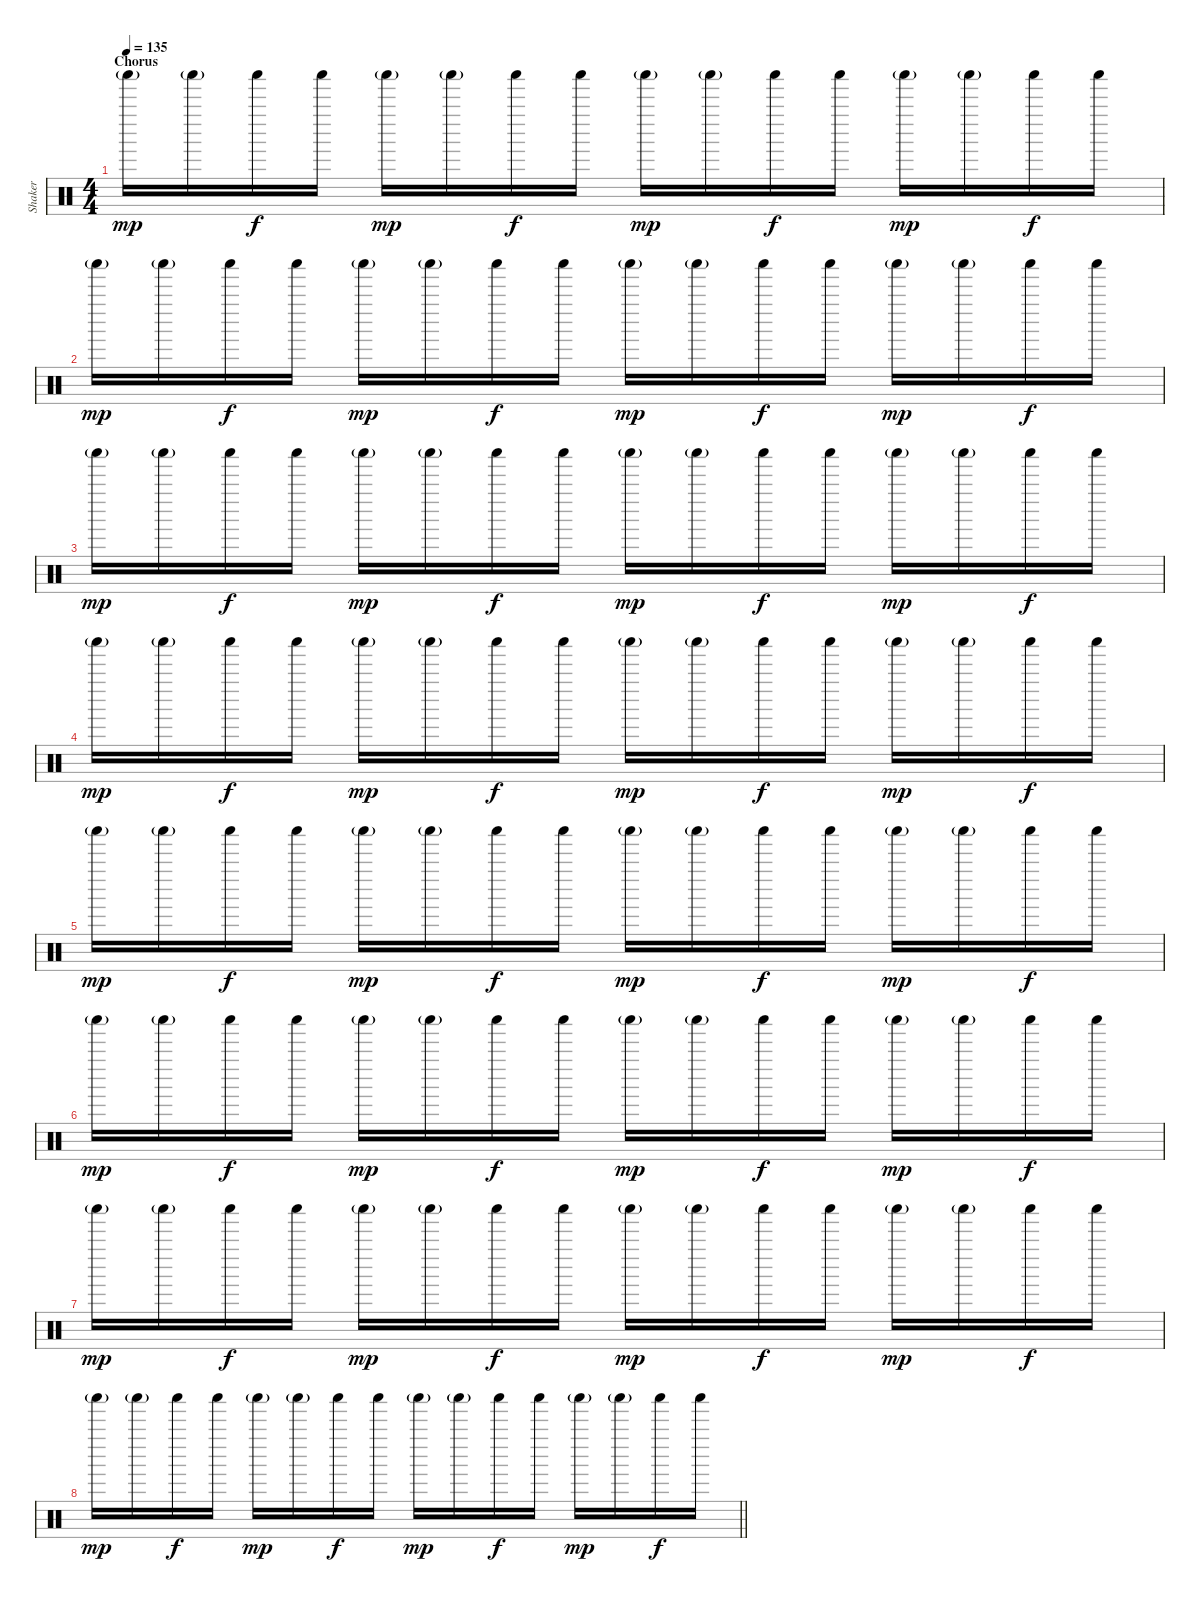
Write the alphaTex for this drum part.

\track ("Shaker" "Shaker") {instrument percussion}
\staff {score}
\articulation defaults
\ts (4 4)
\section ("" "Chorus")
\tempo 135
\clef neutral
\ks c "Shaker (hit)"{g}.16{dy mp} "Shaker (hit)"{g}.16 "Shaker (hit)".16{dy f} "Shaker (hit)".16 "Shaker (hit)"{g}.16{dy mp} "Shaker (hit)"{g}.16 "Shaker (hit)".16{dy f} "Shaker (hit)".16 "Shaker (hit)"{g}.16{dy mp} "Shaker (hit)"{g}.16 "Shaker (hit)".16{dy f} "Shaker (hit)".16 "Shaker (hit)"{g}.16{dy mp} "Shaker (hit)"{g}.16 "Shaker (hit)".16{dy f} "Shaker (hit)".16
|
"Shaker (hit)"{g}.16{dy mp} "Shaker (hit)"{g}.16 "Shaker (hit)".16{dy f} "Shaker (hit)".16 "Shaker (hit)"{g}.16{dy mp} "Shaker (hit)"{g}.16 "Shaker (hit)".16{dy f} "Shaker (hit)".16 "Shaker (hit)"{g}.16{dy mp} "Shaker (hit)"{g}.16 "Shaker (hit)".16{dy f} "Shaker (hit)".16 "Shaker (hit)"{g}.16{dy mp} "Shaker (hit)"{g}.16 "Shaker (hit)".16{dy f} "Shaker (hit)".16 |
"Shaker (hit)"{g}.16{dy mp} "Shaker (hit)"{g}.16 "Shaker (hit)".16{dy f} "Shaker (hit)".16 "Shaker (hit)"{g}.16{dy mp} "Shaker (hit)"{g}.16 "Shaker (hit)".16{dy f} "Shaker (hit)".16 "Shaker (hit)"{g}.16{dy mp} "Shaker (hit)"{g}.16 "Shaker (hit)".16{dy f} "Shaker (hit)".16 "Shaker (hit)"{g}.16{dy mp} "Shaker (hit)"{g}.16 "Shaker (hit)".16{dy f} "Shaker (hit)".16 |
"Shaker (hit)"{g}.16{dy mp} "Shaker (hit)"{g}.16 "Shaker (hit)".16{dy f} "Shaker (hit)".16 "Shaker (hit)"{g}.16{dy mp} "Shaker (hit)"{g}.16 "Shaker (hit)".16{dy f} "Shaker (hit)".16 "Shaker (hit)"{g}.16{dy mp} "Shaker (hit)"{g}.16 "Shaker (hit)".16{dy f} "Shaker (hit)".16 "Shaker (hit)"{g}.16{dy mp} "Shaker (hit)"{g}.16 "Shaker (hit)".16{dy f} "Shaker (hit)".16 |
"Shaker (hit)"{g}.16{dy mp} "Shaker (hit)"{g}.16 "Shaker (hit)".16{dy f} "Shaker (hit)".16 "Shaker (hit)"{g}.16{dy mp} "Shaker (hit)"{g}.16 "Shaker (hit)".16{dy f} "Shaker (hit)".16 "Shaker (hit)"{g}.16{dy mp} "Shaker (hit)"{g}.16 "Shaker (hit)".16{dy f} "Shaker (hit)".16 "Shaker (hit)"{g}.16{dy mp} "Shaker (hit)"{g}.16 "Shaker (hit)".16{dy f} "Shaker (hit)".16 |
"Shaker (hit)"{g}.16{dy mp} "Shaker (hit)"{g}.16 "Shaker (hit)".16{dy f} "Shaker (hit)".16 "Shaker (hit)"{g}.16{dy mp} "Shaker (hit)"{g}.16 "Shaker (hit)".16{dy f} "Shaker (hit)".16 "Shaker (hit)"{g}.16{dy mp} "Shaker (hit)"{g}.16 "Shaker (hit)".16{dy f} "Shaker (hit)".16 "Shaker (hit)"{g}.16{dy mp} "Shaker (hit)"{g}.16 "Shaker (hit)".16{dy f} "Shaker (hit)".16 |
"Shaker (hit)"{g}.16{dy mp} "Shaker (hit)"{g}.16 "Shaker (hit)".16{dy f} "Shaker (hit)".16 "Shaker (hit)"{g}.16{dy mp} "Shaker (hit)"{g}.16 "Shaker (hit)".16{dy f} "Shaker (hit)".16 "Shaker (hit)"{g}.16{dy mp} "Shaker (hit)"{g}.16 "Shaker (hit)".16{dy f} "Shaker (hit)".16 "Shaker (hit)"{g}.16{dy mp} "Shaker (hit)"{g}.16 "Shaker (hit)".16{dy f} "Shaker (hit)".16 |
\barLineRight lightlight "Shaker (hit)"{g}.16{dy mp} "Shaker (hit)"{g}.16 "Shaker (hit)".16{dy f} "Shaker (hit)".16 "Shaker (hit)"{g}.16{dy mp} "Shaker (hit)"{g}.16 "Shaker (hit)".16{dy f} "Shaker (hit)".16 "Shaker (hit)"{g}.16{dy mp} "Shaker (hit)"{g}.16 "Shaker (hit)".16{dy f} "Shaker (hit)".16 "Shaker (hit)"{g}.16{dy mp} "Shaker (hit)"{g}.16 "Shaker (hit)".16{dy f} "Shaker (hit)".16
